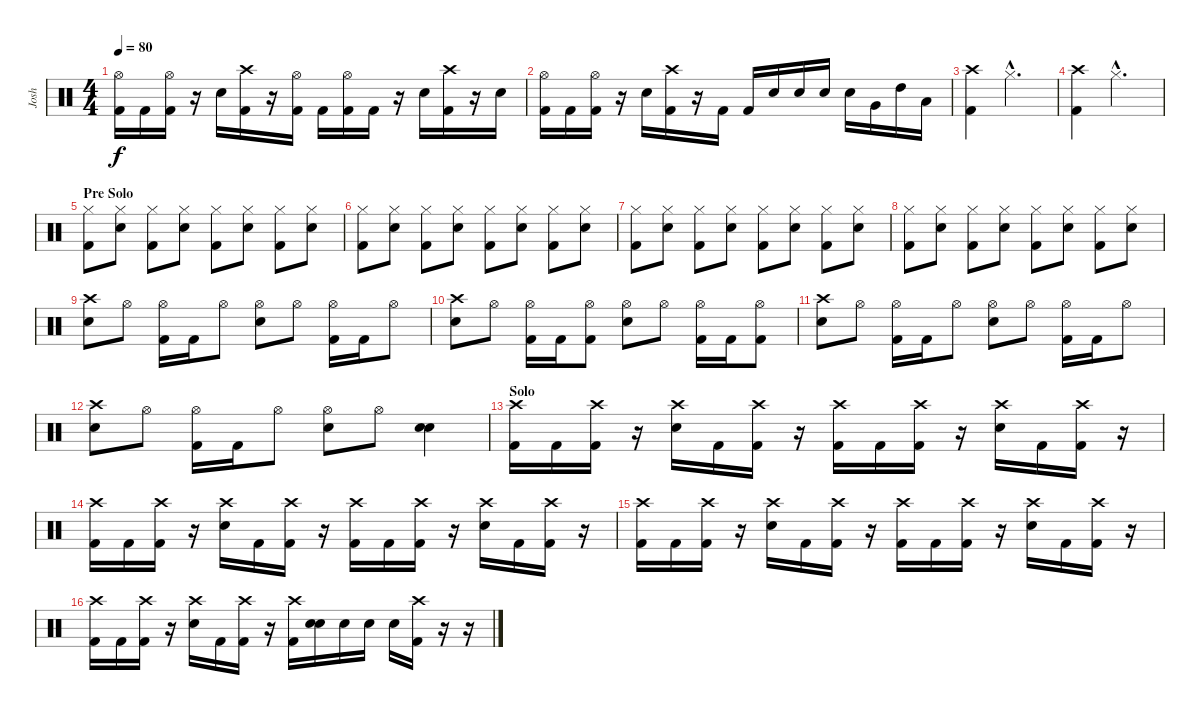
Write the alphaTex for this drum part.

\track ("Josh" "Josh") {instrument percussion}
\staff {score}
\articulation defaults
\ts (4 4)
\tempo 80
\clef neutral
\ks c
("Hi-Hat (open)" "Kick (hit) 2").16{dy f} "Kick (hit) 2".16 ("Hi-Hat (open)" "Kick (hit) 2").16 r.16 "Electric Snare (hit)".16 ("Crash high (hit)" "Kick (hit) 2").16 r.16 ("Hi-Hat (open)" "Kick (hit) 2").16 "Kick (hit) 2".16 ("Hi-Hat (open)" "Kick (hit) 2").16 "Kick (hit) 2".16 r.16 "Electric Snare (hit)".16 ("Crash high (hit)" "Kick (hit) 2").16 r.16 "Electric Snare (hit)".16 |
("Hi-Hat (open)" "Kick (hit) 2").16 "Kick (hit) 2".16 ("Hi-Hat (open)" "Kick (hit) 2").16 r.16 "Electric Snare (hit)".16 ("Crash high (hit)" "Kick (hit) 2").16 r.16 "Kick (hit) 2".16 "Kick (hit) 2".16 "Electric Snare (hit)".16 "Electric Snare (hit)".16 "Electric Snare (hit)".16 "Electric Snare (hit)".16 "Very Low Tom (hit)".16 "High Tom (hit)".16 "Low Floor Tom (hit)".16 |
("Crash high (hit)" "Kick (hit) 2").4 "Hi-Hat (closed)"{hac}.2{d} |
("Crash high (hit)" "Kick (hit) 2").4 "Hi-Hat (closed)"{hac}.2{d} |
\section ("" "Pre Solo")
("Hi-Hat (closed)" "Kick (hit) 2").8 ("Hi-Hat (closed)" "Electric Snare (hit)").8 ("Hi-Hat (closed)" "Kick (hit) 2").8 ("Hi-Hat (closed)" "Electric Snare (hit)").8 ("Hi-Hat (closed)" "Kick (hit) 2").8 ("Hi-Hat (closed)" "Electric Snare (hit)").8 ("Hi-Hat (closed)" "Kick (hit) 2").8 ("Hi-Hat (closed)" "Electric Snare (hit)").8 |
("Hi-Hat (closed)" "Kick (hit) 2").8 ("Hi-Hat (closed)" "Electric Snare (hit)").8 ("Hi-Hat (closed)" "Kick (hit) 2").8 ("Hi-Hat (closed)" "Electric Snare (hit)").8 ("Hi-Hat (closed)" "Kick (hit) 2").8 ("Hi-Hat (closed)" "Electric Snare (hit)").8 ("Hi-Hat (closed)" "Kick (hit) 2").8 ("Hi-Hat (closed)" "Electric Snare (hit)").8 |
("Hi-Hat (closed)" "Kick (hit) 2").8 ("Hi-Hat (closed)" "Electric Snare (hit)").8 ("Hi-Hat (closed)" "Kick (hit) 2").8 ("Hi-Hat (closed)" "Electric Snare (hit)").8 ("Hi-Hat (closed)" "Kick (hit) 2").8 ("Hi-Hat (closed)" "Electric Snare (hit)").8 ("Hi-Hat (closed)" "Kick (hit) 2").8 ("Hi-Hat (closed)" "Electric Snare (hit)").8 |
("Hi-Hat (closed)" "Kick (hit) 2").8 ("Hi-Hat (closed)" "Electric Snare (hit)").8 ("Hi-Hat (closed)" "Kick (hit) 2").8 ("Hi-Hat (closed)" "Electric Snare (hit)").8 ("Hi-Hat (closed)" "Kick (hit) 2").8 ("Hi-Hat (closed)" "Electric Snare (hit)").8 ("Hi-Hat (closed)" "Kick (hit) 2").8 ("Hi-Hat (closed)" "Electric Snare (hit)").8 |
("Crash high (hit)" "Electric Snare (hit)").8 "Hi-Hat (open)".8 ("Hi-Hat (open)" "Kick (hit) 2").16 "Kick (hit) 2".16 "Hi-Hat (open)".8 ("Hi-Hat (open)" "Electric Snare (hit)").8 "Hi-Hat (open)".8 ("Hi-Hat (open)" "Kick (hit) 2").16 "Kick (hit) 2".16 "Hi-Hat (open)".8 |
("Crash high (hit)" "Electric Snare (hit)").8 "Hi-Hat (open)".8 ("Hi-Hat (open)" "Kick (hit) 2").16 "Kick (hit) 2".16 ("Hi-Hat (open)" "Kick (hit) 2").8 ("Hi-Hat (open)" "Electric Snare (hit)").8 "Hi-Hat (open)".8 ("Hi-Hat (open)" "Kick (hit) 2").16 "Kick (hit) 2".16 ("Hi-Hat (open)" "Kick (hit) 2").8 |
("Crash high (hit)" "Electric Snare (hit)").8 "Hi-Hat (open)".8 ("Hi-Hat (open)" "Kick (hit) 2").16 "Kick (hit) 2".16 "Hi-Hat (open)".8 ("Hi-Hat (open)" "Electric Snare (hit)").8 "Hi-Hat (open)".8 ("Hi-Hat (open)" "Kick (hit) 2").16 "Kick (hit) 2".16 "Hi-Hat (open)".8 |
("Crash high (hit)" "Electric Snare (hit)").8 "Hi-Hat (open)".8 ("Hi-Hat (open)" "Kick (hit) 2").16 "Kick (hit) 2".16 "Hi-Hat (open)".8 ("Hi-Hat (open)" "Electric Snare (hit)").8 "Hi-Hat (open)".8 ("Electric Snare (hit)" "Electric Snare (hit)").4 |
\section ("" "Solo")
("Crash high (hit)" "Kick (hit) 2").16 "Kick (hit) 2".16 ("Crash high (hit)" "Kick (hit) 2").16 r.16 ("Crash high (hit)" "Electric Snare (hit)").16 "Kick (hit) 2".16 ("Crash high (hit)" "Kick (hit) 2").16 r.16 ("Crash high (hit)" "Kick (hit) 2").16 "Kick (hit) 2".16 ("Crash high (hit)" "Kick (hit) 2").16 r.16 ("Crash high (hit)" "Electric Snare (hit)").16 "Kick (hit) 2".16 ("Crash high (hit)" "Kick (hit) 2").16 r.16 |
("Crash high (hit)" "Kick (hit) 2").16 "Kick (hit) 2".16 ("Crash high (hit)" "Kick (hit) 2").16 r.16 ("Crash high (hit)" "Electric Snare (hit)").16 "Kick (hit) 2".16 ("Crash high (hit)" "Kick (hit) 2").16 r.16 ("Crash high (hit)" "Kick (hit) 2").16 "Kick (hit) 2".16 ("Crash high (hit)" "Kick (hit) 2").16 r.16 ("Crash high (hit)" "Electric Snare (hit)").16 "Kick (hit) 2".16 ("Crash high (hit)" "Kick (hit) 2").16 r.16 |
("Crash high (hit)" "Kick (hit) 2").16 "Kick (hit) 2".16 ("Crash high (hit)" "Kick (hit) 2").16 r.16 ("Crash high (hit)" "Electric Snare (hit)").16 "Kick (hit) 2".16 ("Crash high (hit)" "Kick (hit) 2").16 r.16 ("Crash high (hit)" "Kick (hit) 2").16 "Kick (hit) 2".16 ("Crash high (hit)" "Kick (hit) 2").16 r.16 ("Crash high (hit)" "Electric Snare (hit)").16 "Kick (hit) 2".16 ("Crash high (hit)" "Kick (hit) 2").16 r.16 |
("Crash high (hit)" "Kick (hit) 2").16 "Kick (hit) 2".16 ("Crash high (hit)" "Kick (hit) 2").16 r.16 ("Crash high (hit)" "Electric Snare (hit)").16 "Kick (hit) 2".16 ("Crash high (hit)" "Kick (hit) 2").16 r.16 ("Crash high (hit)" "Kick (hit) 2").16 ("Electric Snare (hit)" "Electric Snare (hit)").16 "Electric Snare (hit)".16 "Electric Snare (hit)".16 "Electric Snare (hit)".16 ("Crash high (hit)" "Kick (hit) 2").16 r.16 r.16
